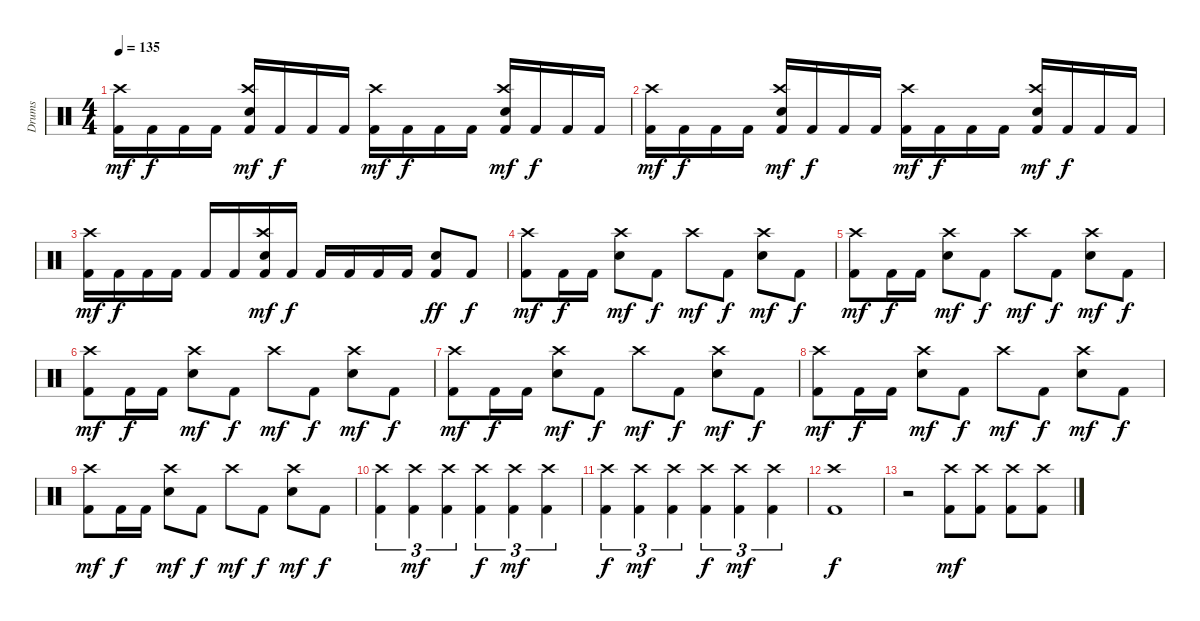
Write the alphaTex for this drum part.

\track ("Drums" "Drums") {instrument percussion}
\staff {score}
\articulation defaults
\ts (4 4)
\tempo 135
\clef neutral
\ks c
("Kick (hit) 2" "Crash high (hit)").16{dy mf} "Kick (hit) 2".16{dy f} "Kick (hit) 2".16 "Kick (hit) 2".16 ("Kick (hit) 2" "Electric Snare (hit)" "Crash high (hit)").16{dy mf} "Kick (hit) 2".16{dy f} "Kick (hit) 2".16 "Kick (hit) 2".16 ("Kick (hit) 2" "Crash high (hit)").16{dy mf} "Kick (hit) 2".16{dy f} "Kick (hit) 2".16 "Kick (hit) 2".16 ("Kick (hit) 2" "Electric Snare (hit)" "Crash high (hit)").16{dy mf} "Kick (hit) 2".16{dy f} "Kick (hit) 2".16 "Kick (hit) 2".16 |
("Kick (hit) 2" "Crash high (hit)").16{dy mf} "Kick (hit) 2".16{dy f} "Kick (hit) 2".16 "Kick (hit) 2".16 ("Kick (hit) 2" "Electric Snare (hit)" "Crash high (hit)").16{dy mf} "Kick (hit) 2".16{dy f} "Kick (hit) 2".16 "Kick (hit) 2".16 ("Kick (hit) 2" "Crash high (hit)").16{dy mf} "Kick (hit) 2".16{dy f} "Kick (hit) 2".16 "Kick (hit) 2".16 ("Kick (hit) 2" "Electric Snare (hit)" "Crash high (hit)").16{dy mf} "Kick (hit) 2".16{dy f} "Kick (hit) 2".16 "Kick (hit) 2".16 |
("Kick (hit) 2" "Crash high (hit)").16{dy mf} "Kick (hit) 2".16{dy f} "Kick (hit) 2".16 "Kick (hit) 2".16 "Kick (hit) 2".16 "Kick (hit) 2".16 ("Kick (hit) 2" "Electric Snare (hit)" "Crash high (hit)").16{dy mf} "Kick (hit) 2".16{dy f} "Kick (hit) 2".16 "Kick (hit) 2".16 "Kick (hit) 2".16 "Kick (hit) 2".16 ("Kick (hit) 2" "Electric Snare (hit)").8{dy ff} "Kick (hit) 2".8{dy f} |
("Kick (hit) 2" "Crash high (hit)").8{dy mf} "Kick (hit) 2".16{dy f} "Kick (hit) 2".16 ("Electric Snare (hit)" "Crash high (hit)").8{dy mf} "Kick (hit) 2".8{dy f} "Crash high (hit)".8{dy mf} "Kick (hit) 2".8{dy f} ("Electric Snare (hit)" "Crash high (hit)").8{dy mf} "Kick (hit) 2".8{dy f} |
("Kick (hit) 2" "Crash high (hit)").8{dy mf} "Kick (hit) 2".16{dy f} "Kick (hit) 2".16 ("Electric Snare (hit)" "Crash high (hit)").8{dy mf} "Kick (hit) 2".8{dy f} "Crash high (hit)".8{dy mf} "Kick (hit) 2".8{dy f} ("Electric Snare (hit)" "Crash high (hit)").8{dy mf} "Kick (hit) 2".8{dy f} |
("Kick (hit) 2" "Crash high (hit)").8{dy mf} "Kick (hit) 2".16{dy f} "Kick (hit) 2".16 ("Electric Snare (hit)" "Crash high (hit)").8{dy mf} "Kick (hit) 2".8{dy f} "Crash high (hit)".8{dy mf} "Kick (hit) 2".8{dy f} ("Electric Snare (hit)" "Crash high (hit)").8{dy mf} "Kick (hit) 2".8{dy f} |
("Kick (hit) 2" "Crash high (hit)").8{dy mf} "Kick (hit) 2".16{dy f} "Kick (hit) 2".16 ("Electric Snare (hit)" "Crash high (hit)").8{dy mf} "Kick (hit) 2".8{dy f} "Crash high (hit)".8{dy mf} "Kick (hit) 2".8{dy f} ("Electric Snare (hit)" "Crash high (hit)").8{dy mf} "Kick (hit) 2".8{dy f} |
("Kick (hit) 2" "Crash high (hit)").8{dy mf} "Kick (hit) 2".16{dy f} "Kick (hit) 2".16 ("Electric Snare (hit)" "Crash high (hit)").8{dy mf} "Kick (hit) 2".8{dy f} "Crash high (hit)".8{dy mf} "Kick (hit) 2".8{dy f} ("Electric Snare (hit)" "Crash high (hit)").8{dy mf} "Kick (hit) 2".8{dy f} |
("Kick (hit) 2" "Crash high (hit)").8{dy mf} "Kick (hit) 2".16{dy f} "Kick (hit) 2".16 ("Electric Snare (hit)" "Crash high (hit)").8{dy mf} "Kick (hit) 2".8{dy f} "Crash high (hit)".8{dy mf} "Kick (hit) 2".8{dy f} ("Electric Snare (hit)" "Crash high (hit)").8{dy mf} "Kick (hit) 2".8{dy f} |
("Kick (hit) 2" "Crash high (hit)").4{tu (3 2)} ("Kick (hit) 2" "Crash high (hit)").4{tu (3 2) dy mf} ("Kick (hit) 2" "Crash high (hit)").4{tu (3 2)} ("Kick (hit) 2" "Crash high (hit)").4{tu (3 2) dy f} ("Kick (hit) 2" "Crash high (hit)").4{tu (3 2) dy mf} ("Kick (hit) 2" "Crash high (hit)").4{tu (3 2)} |
("Kick (hit) 2" "Crash high (hit)").4{tu (3 2) dy f} ("Kick (hit) 2" "Crash high (hit)").4{tu (3 2) dy mf} ("Kick (hit) 2" "Crash high (hit)").4{tu (3 2)} ("Kick (hit) 2" "Crash high (hit)").4{tu (3 2) dy f} ("Kick (hit) 2" "Crash high (hit)").4{tu (3 2) dy mf} ("Kick (hit) 2" "Crash high (hit)").4{tu (3 2)} |
("Kick (hit) 2" "Crash high (hit)").1{dy f} |
r.2 ("Kick (hit) 2" "Crash high (hit)").8{dy mf} ("Kick (hit) 2" "Crash high (hit)").8 ("Kick (hit) 2" "Crash high (hit)").8 ("Kick (hit) 2" "Crash high (hit)").8
